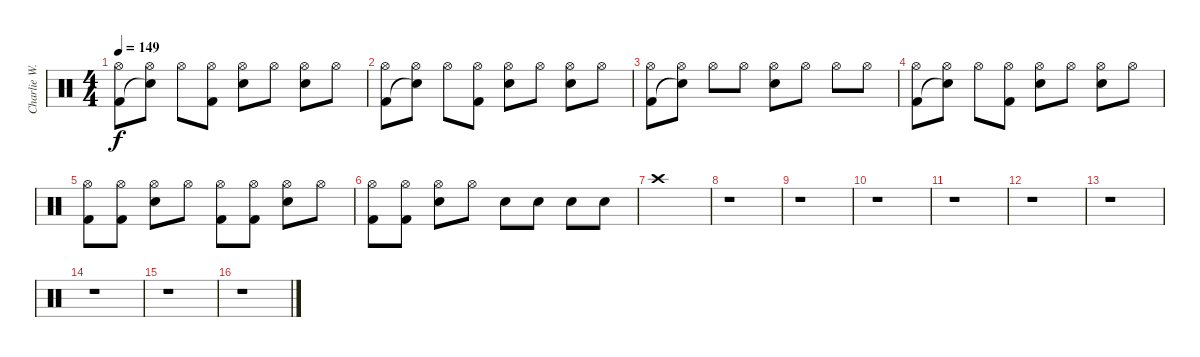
\track ("Charlie W. drums" "Charlie W.") {instrument percussion}
\staff {score}
\articulation defaults
\ts (4 4)
\tempo 149
\clef neutral
\ks c
("Hi-Hat (open)" "Kick (hit) 2").8{dy f} ("Hi-Hat (open)" "Snare (hit)"{t}).8 "Hi-Hat (open)".8 ("Hi-Hat (open)" "Kick (hit) 2").8 ("Hi-Hat (open)" "Snare (hit) 2").8 "Hi-Hat (open)".8 ("Hi-Hat (open)" "Snare (hit) 2").8 "Hi-Hat (open)".8 |
("Hi-Hat (open)" "Kick (hit) 2").8 ("Hi-Hat (open)" "Snare (hit)"{t}).8 "Hi-Hat (open)".8 ("Hi-Hat (open)" "Kick (hit) 2").8 ("Hi-Hat (open)" "Snare (hit) 2").8 "Hi-Hat (open)".8 ("Hi-Hat (open)" "Snare (hit) 2").8 "Hi-Hat (open)".8 |
("Hi-Hat (open)" "Kick (hit) 2").8 ("Hi-Hat (open)" "Snare (hit)"{t}).8 "Hi-Hat (open)".8 "Hi-Hat (open)".8 ("Hi-Hat (open)" "Snare (hit) 2").8 "Hi-Hat (open)".8 "Hi-Hat (open)".8 "Hi-Hat (open)".8 |
("Hi-Hat (open)" "Kick (hit) 2").8 ("Hi-Hat (open)" "Snare (hit)"{t}).8 "Hi-Hat (open)".8 ("Hi-Hat (open)" "Kick (hit) 2").8 ("Hi-Hat (open)" "Snare (hit) 2").8 "Hi-Hat (open)".8 ("Hi-Hat (open)" "Snare (hit) 2").8 "Hi-Hat (open)".8 |
("Hi-Hat (open)" "Kick (hit) 2").8 ("Hi-Hat (open)" "Kick (hit) 2").8 ("Hi-Hat (open)" "Snare (hit) 2").8 "Hi-Hat (open)".8 ("Hi-Hat (open)" "Kick (hit) 2").8 ("Hi-Hat (open)" "Kick (hit) 2").8 ("Hi-Hat (open)" "Snare (hit) 2").8 "Hi-Hat (open)".8 |
("Hi-Hat (open)" "Kick (hit) 2").8 ("Hi-Hat (open)" "Kick (hit) 2").8 ("Hi-Hat (open)" "Snare (hit) 2").8 "Hi-Hat (open)".8 "Snare (hit) 2".8 "Snare (hit) 2".8 "Snare (hit) 2".8 "Snare (hit) 2".8 |
"Crash high (hit)".1 |
r.1 |
r.1 |
r.1 |
r.1 |
r.1 |
r.1 |
r.1 |
r.1 |
r.1
